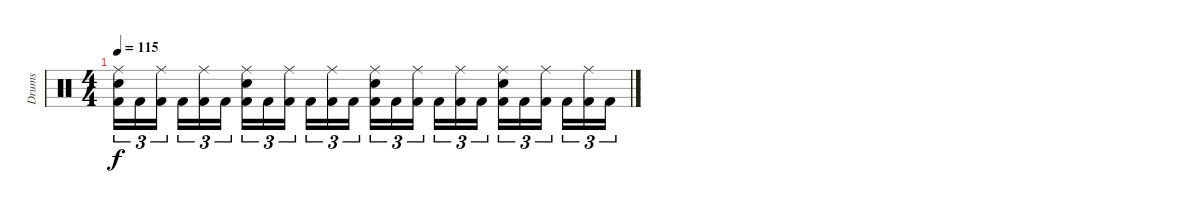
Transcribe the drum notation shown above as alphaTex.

\track ("Drums" "Drums") {instrument percussion}
\staff {score}
\articulation defaults
\ts (4 4)
\tempo 115
\clef neutral
\ks c
("Kick (hit) 2" "Electric Snare (hit)" "Ride (middle)").16{tu (3 2) dy f} "Kick (hit) 2".16{tu (3 2)} ("Kick (hit) 2" "Ride (middle)").16{tu (3 2)} "Kick (hit) 2".16{tu (3 2)} ("Kick (hit) 2" "Ride (middle)").16{tu (3 2)} "Kick (hit) 2".16{tu (3 2)} ("Kick (hit) 2" "Electric Snare (hit)" "Ride (middle)").16{tu (3 2)} "Kick (hit) 2".16{tu (3 2)} ("Kick (hit) 2" "Ride (middle)").16{tu (3 2)} "Kick (hit) 2".16{tu (3 2)} ("Kick (hit) 2" "Ride (middle)").16{tu (3 2)} "Kick (hit) 2".16{tu (3 2)} ("Kick (hit) 2" "Electric Snare (hit)" "Ride (middle)").16{tu (3 2)} "Kick (hit) 2".16{tu (3 2)} ("Kick (hit) 2" "Ride (middle)").16{tu (3 2)} "Kick (hit) 2".16{tu (3 2)} ("Kick (hit) 2" "Ride (middle)").16{tu (3 2)} "Kick (hit) 2".16{tu (3 2)} ("Kick (hit) 2" "Electric Snare (hit)" "Ride (middle)").16{tu (3 2)} "Kick (hit) 2".16{tu (3 2)} ("Kick (hit) 2" "Ride (middle)").16{tu (3 2)} "Kick (hit) 2".16{tu (3 2)} ("Kick (hit) 2" "Ride (middle)").16{tu (3 2)} "Kick (hit) 2".16{tu (3 2)}
